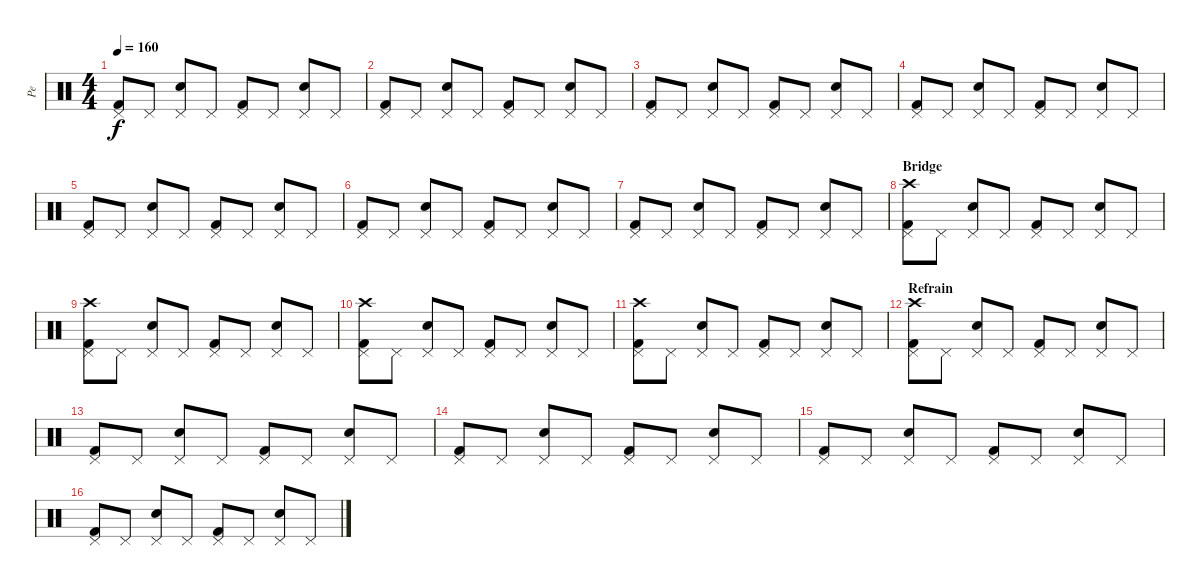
\track ("Pe" "Pe") {instrument percussion}
\staff {score}
\articulation defaults
\ts (4 4)
\tempo 160
\clef neutral
\ks c
("Pedal Hi-Hat (hit)" "Kick (hit) 2").8{dy f} "Pedal Hi-Hat (hit)".8 ("Pedal Hi-Hat (hit)" "Electric Snare (hit)").8 "Pedal Hi-Hat (hit)".8 ("Pedal Hi-Hat (hit)" "Kick (hit) 2").8 "Pedal Hi-Hat (hit)".8 ("Pedal Hi-Hat (hit)" "Electric Snare (hit)").8 "Pedal Hi-Hat (hit)".8 |
("Pedal Hi-Hat (hit)" "Kick (hit) 2").8 "Pedal Hi-Hat (hit)".8 ("Pedal Hi-Hat (hit)" "Electric Snare (hit)").8 "Pedal Hi-Hat (hit)".8 ("Pedal Hi-Hat (hit)" "Kick (hit) 2").8 "Pedal Hi-Hat (hit)".8 ("Pedal Hi-Hat (hit)" "Electric Snare (hit)").8 "Pedal Hi-Hat (hit)".8 |
("Pedal Hi-Hat (hit)" "Kick (hit) 2").8 "Pedal Hi-Hat (hit)".8 ("Pedal Hi-Hat (hit)" "Electric Snare (hit)").8 "Pedal Hi-Hat (hit)".8 ("Pedal Hi-Hat (hit)" "Kick (hit) 2").8 "Pedal Hi-Hat (hit)".8 ("Pedal Hi-Hat (hit)" "Electric Snare (hit)").8 "Pedal Hi-Hat (hit)".8 |
("Pedal Hi-Hat (hit)" "Kick (hit) 2").8 "Pedal Hi-Hat (hit)".8 ("Pedal Hi-Hat (hit)" "Electric Snare (hit)").8 "Pedal Hi-Hat (hit)".8 ("Pedal Hi-Hat (hit)" "Kick (hit) 2").8 "Pedal Hi-Hat (hit)".8 ("Pedal Hi-Hat (hit)" "Electric Snare (hit)").8 "Pedal Hi-Hat (hit)".8 |
("Pedal Hi-Hat (hit)" "Kick (hit) 2").8 "Pedal Hi-Hat (hit)".8 ("Pedal Hi-Hat (hit)" "Electric Snare (hit)").8 "Pedal Hi-Hat (hit)".8 ("Pedal Hi-Hat (hit)" "Kick (hit) 2").8 "Pedal Hi-Hat (hit)".8 ("Pedal Hi-Hat (hit)" "Electric Snare (hit)").8 "Pedal Hi-Hat (hit)".8 |
("Pedal Hi-Hat (hit)" "Kick (hit) 2").8 "Pedal Hi-Hat (hit)".8 ("Pedal Hi-Hat (hit)" "Electric Snare (hit)").8 "Pedal Hi-Hat (hit)".8 ("Pedal Hi-Hat (hit)" "Kick (hit) 2").8 "Pedal Hi-Hat (hit)".8 ("Pedal Hi-Hat (hit)" "Electric Snare (hit)").8 "Pedal Hi-Hat (hit)".8 |
("Pedal Hi-Hat (hit)" "Kick (hit) 2").8 "Pedal Hi-Hat (hit)".8 ("Pedal Hi-Hat (hit)" "Electric Snare (hit)").8 "Pedal Hi-Hat (hit)".8 ("Pedal Hi-Hat (hit)" "Kick (hit) 2").8 "Pedal Hi-Hat (hit)".8 ("Pedal Hi-Hat (hit)" "Electric Snare (hit)").8 "Pedal Hi-Hat (hit)".8 |
\section ("" "Bridge")
("Pedal Hi-Hat (hit)" "Kick (hit) 2" "Crash high (hit)").8 "Pedal Hi-Hat (hit)".8 ("Pedal Hi-Hat (hit)" "Electric Snare (hit)").8 "Pedal Hi-Hat (hit)".8 ("Pedal Hi-Hat (hit)" "Kick (hit) 2").8 "Pedal Hi-Hat (hit)".8 ("Pedal Hi-Hat (hit)" "Electric Snare (hit)").8 "Pedal Hi-Hat (hit)".8 |
("Pedal Hi-Hat (hit)" "Kick (hit) 2" "Crash high (hit)").8 "Pedal Hi-Hat (hit)".8 ("Pedal Hi-Hat (hit)" "Electric Snare (hit)").8 "Pedal Hi-Hat (hit)".8 ("Pedal Hi-Hat (hit)" "Kick (hit) 2").8 "Pedal Hi-Hat (hit)".8 ("Pedal Hi-Hat (hit)" "Electric Snare (hit)").8 "Pedal Hi-Hat (hit)".8 |
("Pedal Hi-Hat (hit)" "Kick (hit) 2" "Crash high (hit)").8 "Pedal Hi-Hat (hit)".8 ("Pedal Hi-Hat (hit)" "Electric Snare (hit)").8 "Pedal Hi-Hat (hit)".8 ("Pedal Hi-Hat (hit)" "Kick (hit) 2").8 "Pedal Hi-Hat (hit)".8 ("Pedal Hi-Hat (hit)" "Electric Snare (hit)").8 "Pedal Hi-Hat (hit)".8 |
("Pedal Hi-Hat (hit)" "Kick (hit) 2" "Crash high (hit)").8 "Pedal Hi-Hat (hit)".8 ("Pedal Hi-Hat (hit)" "Electric Snare (hit)").8 "Pedal Hi-Hat (hit)".8 ("Pedal Hi-Hat (hit)" "Kick (hit) 2").8 "Pedal Hi-Hat (hit)".8 ("Pedal Hi-Hat (hit)" "Electric Snare (hit)").8 "Pedal Hi-Hat (hit)".8 |
\section ("" "Refrain")
("Pedal Hi-Hat (hit)" "Kick (hit) 2" "Crash high (hit)").8 "Pedal Hi-Hat (hit)".8 ("Pedal Hi-Hat (hit)" "Electric Snare (hit)").8 "Pedal Hi-Hat (hit)".8 ("Pedal Hi-Hat (hit)" "Kick (hit) 2").8 "Pedal Hi-Hat (hit)".8 ("Pedal Hi-Hat (hit)" "Electric Snare (hit)").8 "Pedal Hi-Hat (hit)".8 |
("Pedal Hi-Hat (hit)" "Kick (hit) 2").8 "Pedal Hi-Hat (hit)".8 ("Pedal Hi-Hat (hit)" "Electric Snare (hit)").8 "Pedal Hi-Hat (hit)".8 ("Pedal Hi-Hat (hit)" "Kick (hit) 2").8 "Pedal Hi-Hat (hit)".8 ("Pedal Hi-Hat (hit)" "Electric Snare (hit)").8 "Pedal Hi-Hat (hit)".8 |
("Pedal Hi-Hat (hit)" "Kick (hit) 2").8 "Pedal Hi-Hat (hit)".8 ("Pedal Hi-Hat (hit)" "Electric Snare (hit)").8 "Pedal Hi-Hat (hit)".8 ("Pedal Hi-Hat (hit)" "Kick (hit) 2").8 "Pedal Hi-Hat (hit)".8 ("Pedal Hi-Hat (hit)" "Electric Snare (hit)").8 "Pedal Hi-Hat (hit)".8 |
("Pedal Hi-Hat (hit)" "Kick (hit) 2").8 "Pedal Hi-Hat (hit)".8 ("Pedal Hi-Hat (hit)" "Electric Snare (hit)").8 "Pedal Hi-Hat (hit)".8 ("Pedal Hi-Hat (hit)" "Kick (hit) 2").8 "Pedal Hi-Hat (hit)".8 ("Pedal Hi-Hat (hit)" "Electric Snare (hit)").8 "Pedal Hi-Hat (hit)".8 |
("Pedal Hi-Hat (hit)" "Kick (hit) 2").8 "Pedal Hi-Hat (hit)".8 ("Pedal Hi-Hat (hit)" "Electric Snare (hit)").8 "Pedal Hi-Hat (hit)".8 ("Pedal Hi-Hat (hit)" "Kick (hit) 2").8 "Pedal Hi-Hat (hit)".8 ("Pedal Hi-Hat (hit)" "Electric Snare (hit)").8 "Pedal Hi-Hat (hit)".8
